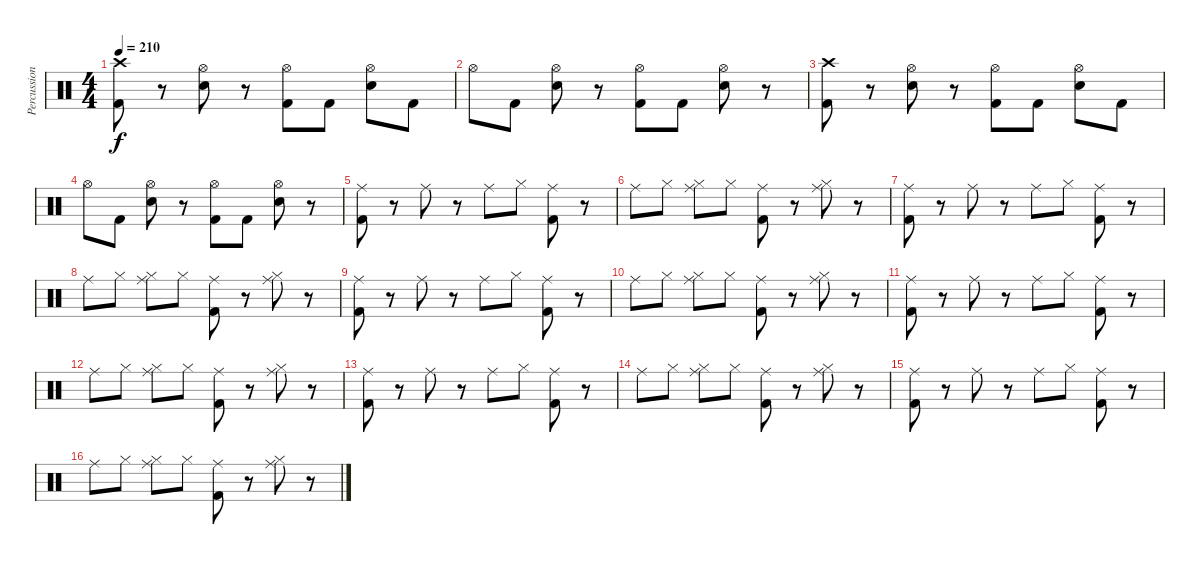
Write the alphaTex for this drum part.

\track ("Percussion" "Percussion") {instrument percussion}
\staff {score}
\articulation defaults
\ts (4 4)
\tempo 210
\clef neutral
\ks c
("Crash high (hit)" "Kick (hit) 2").8{dy f} r.8 ("Hi-Hat (open)" "Electric Snare (hit)").8 r.8 ("Hi-Hat (open)" "Kick (hit) 2").8 "Kick (hit) 2".8 ("Hi-Hat (open)" "Electric Snare (hit)").8 "Kick (hit) 2".8 |
"Hi-Hat (open)".8 "Kick (hit) 2".8 ("Hi-Hat (open)" "Electric Snare (hit)").8 r.8 ("Hi-Hat (open)" "Kick (hit) 2").8 "Kick (hit) 2".8 ("Hi-Hat (open)" "Electric Snare (hit)").8 r.8 |
("Crash high (hit)" "Kick (hit) 2").8 r.8 ("Hi-Hat (open)" "Electric Snare (hit)").8 r.8 ("Hi-Hat (open)" "Kick (hit) 2").8 "Kick (hit) 2".8 ("Hi-Hat (open)" "Electric Snare (hit)").8 "Kick (hit) 2".8 |
"Hi-Hat (open)".8 "Kick (hit) 2".8 ("Hi-Hat (open)" "Electric Snare (hit)").8 r.8 ("Hi-Hat (open)" "Kick (hit) 2").8 "Kick (hit) 2".8 ("Hi-Hat (open)" "Electric Snare (hit)").8 r.8 |
("Ride (middle)" "Kick (hit) 2").8 r.8 "Ride (middle)".8 r.8 "Ride (middle)".8 "Hi-Hat (closed)".8 ("Ride (middle)" "Kick (hit) 2").8 r.8 |
"Ride (middle)".8 "Hi-Hat (closed)".8 ("Ride (middle)" "Hi-Hat (closed)").8 "Hi-Hat (closed)".8 ("Ride (middle)" "Kick (hit) 2").8 r.8 ("Ride (middle)" "Hi-Hat (closed)").8 r.8 |
("Ride (middle)" "Kick (hit) 2").8 r.8 "Ride (middle)".8 r.8 "Ride (middle)".8 "Hi-Hat (closed)".8 ("Ride (middle)" "Kick (hit) 2").8 r.8 |
"Ride (middle)".8 "Hi-Hat (closed)".8 ("Ride (middle)" "Hi-Hat (closed)").8 "Hi-Hat (closed)".8 ("Ride (middle)" "Kick (hit) 2").8 r.8 ("Ride (middle)" "Hi-Hat (closed)").8 r.8 |
("Ride (middle)" "Kick (hit) 2").8 r.8 "Ride (middle)".8 r.8 "Ride (middle)".8 "Hi-Hat (closed)".8 ("Ride (middle)" "Kick (hit) 2").8 r.8 |
"Ride (middle)".8 "Hi-Hat (closed)".8 ("Ride (middle)" "Hi-Hat (closed)").8 "Hi-Hat (closed)".8 ("Ride (middle)" "Kick (hit) 2").8 r.8 ("Ride (middle)" "Hi-Hat (closed)").8 r.8 |
("Ride (middle)" "Kick (hit) 2").8 r.8 "Ride (middle)".8 r.8 "Ride (middle)".8 "Hi-Hat (closed)".8 ("Ride (middle)" "Kick (hit) 2").8 r.8 |
"Ride (middle)".8 "Hi-Hat (closed)".8 ("Ride (middle)" "Hi-Hat (closed)").8 "Hi-Hat (closed)".8 ("Ride (middle)" "Kick (hit) 2").8 r.8 ("Ride (middle)" "Hi-Hat (closed)").8 r.8 |
("Ride (middle)" "Kick (hit) 2").8 r.8 "Ride (middle)".8 r.8 "Ride (middle)".8 "Hi-Hat (closed)".8 ("Ride (middle)" "Kick (hit) 2").8 r.8 |
"Ride (middle)".8 "Hi-Hat (closed)".8 ("Ride (middle)" "Hi-Hat (closed)").8 "Hi-Hat (closed)".8 ("Ride (middle)" "Kick (hit) 2").8 r.8 ("Ride (middle)" "Hi-Hat (closed)").8 r.8 |
("Ride (middle)" "Kick (hit) 2").8 r.8 "Ride (middle)".8 r.8 "Ride (middle)".8 "Hi-Hat (closed)".8 ("Ride (middle)" "Kick (hit) 2").8 r.8 |
"Ride (middle)".8 "Hi-Hat (closed)".8 ("Ride (middle)" "Hi-Hat (closed)").8 "Hi-Hat (closed)".8 ("Ride (middle)" "Kick (hit) 2").8 r.8 ("Ride (middle)" "Hi-Hat (closed)").8 r.8
